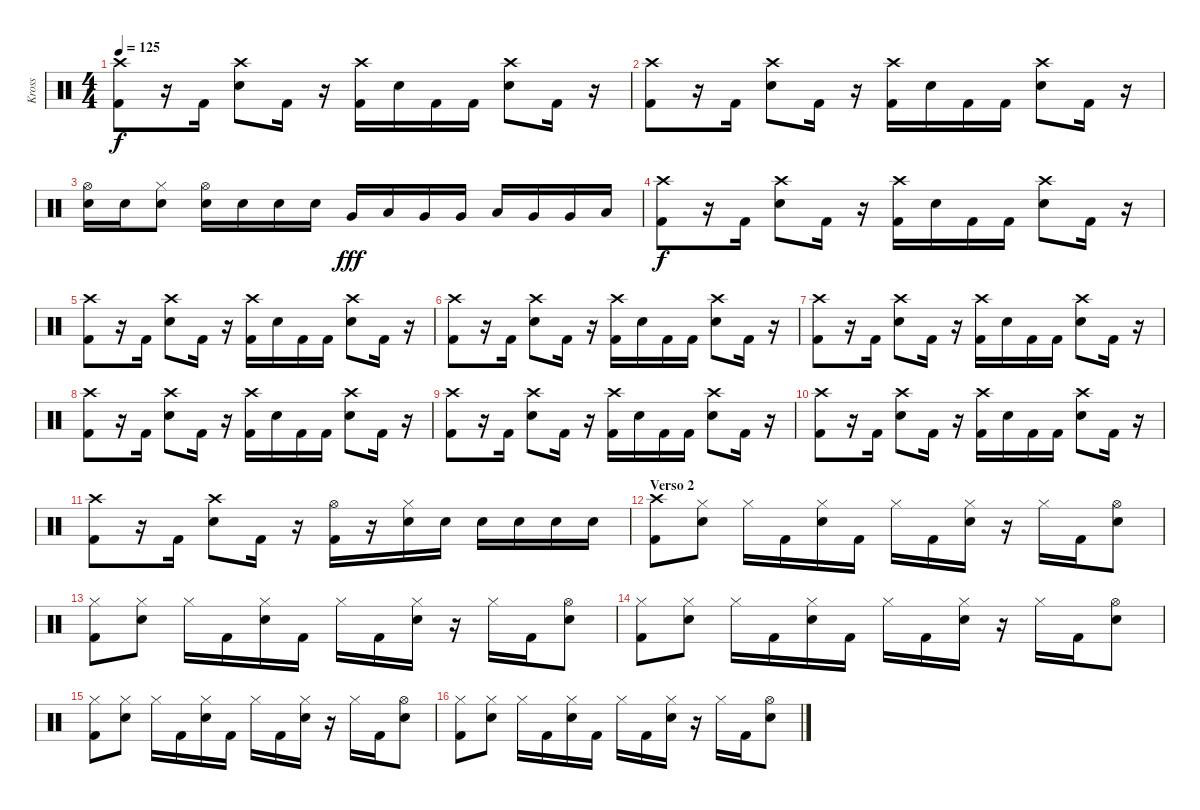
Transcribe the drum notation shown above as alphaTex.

\track ("Kross" "Kross") {instrument percussion}
\staff {score}
\articulation defaults
\ts (4 4)
\tempo 125
\clef neutral
\ks c
("Crash high (hit)" "Kick (hit) 2").8{dy f} r.16 "Kick (hit) 2".16 ("Crash high (hit)" "Electric Snare (hit)").8 "Kick (hit) 2".16 r.16 ("Crash high (hit)" "Kick (hit) 2").16 "Electric Snare (hit)".16 "Kick (hit) 2".16 "Kick (hit) 2".16 ("Crash high (hit)" "Electric Snare (hit)").8 "Kick (hit) 2".16 r.16 |
("Crash high (hit)" "Kick (hit) 2").8 r.16 "Kick (hit) 2".16 ("Crash high (hit)" "Electric Snare (hit)").8 "Kick (hit) 2".16 r.16 ("Crash high (hit)" "Kick (hit) 2").16 "Electric Snare (hit)".16 "Kick (hit) 2".16 "Kick (hit) 2".16 ("Crash high (hit)" "Electric Snare (hit)").8 "Kick (hit) 2".16 r.16 |
("Hi-Hat (open)" "Electric Snare (hit)").16 "Electric Snare (hit)".16 ("Hi-Hat (closed)" "Electric Snare (hit)").8 ("Hi-Hat (open)" "Electric Snare (hit)").16 "Electric Snare (hit)".16 "Electric Snare (hit)".16 "Electric Snare (hit)".16 "Very Low Tom (hit)".16{dy fff} "Low Tom (hit)".16 "Very Low Tom (hit)".16 "Very Low Tom (hit)".16 "Low Tom (hit)".16 "Very Low Tom (hit)".16 "Very Low Tom (hit)".16 "Low Tom (hit)".16 |
("Crash high (hit)" "Kick (hit) 2").8{dy f} r.16 "Kick (hit) 2".16 ("Crash high (hit)" "Electric Snare (hit)").8 "Kick (hit) 2".16 r.16 ("Crash high (hit)" "Kick (hit) 2").16 "Electric Snare (hit)".16 "Kick (hit) 2".16 "Kick (hit) 2".16 ("Crash high (hit)" "Electric Snare (hit)").8 "Kick (hit) 2".16 r.16 |
("Crash high (hit)" "Kick (hit) 2").8 r.16 "Kick (hit) 2".16 ("Crash high (hit)" "Electric Snare (hit)").8 "Kick (hit) 2".16 r.16 ("Crash high (hit)" "Kick (hit) 2").16 "Electric Snare (hit)".16 "Kick (hit) 2".16 "Kick (hit) 2".16 ("Crash high (hit)" "Electric Snare (hit)").8 "Kick (hit) 2".16 r.16 |
("Crash high (hit)" "Kick (hit) 2").8 r.16 "Kick (hit) 2".16 ("Crash high (hit)" "Electric Snare (hit)").8 "Kick (hit) 2".16 r.16 ("Crash high (hit)" "Kick (hit) 2").16 "Electric Snare (hit)".16 "Kick (hit) 2".16 "Kick (hit) 2".16 ("Crash high (hit)" "Electric Snare (hit)").8 "Kick (hit) 2".16 r.16 |
("Crash high (hit)" "Kick (hit) 2").8 r.16 "Kick (hit) 2".16 ("Crash high (hit)" "Electric Snare (hit)").8 "Kick (hit) 2".16 r.16 ("Crash high (hit)" "Kick (hit) 2").16 "Electric Snare (hit)".16 "Kick (hit) 2".16 "Kick (hit) 2".16 ("Crash high (hit)" "Electric Snare (hit)").8 "Kick (hit) 2".16 r.16 |
("Crash high (hit)" "Kick (hit) 2").8 r.16 "Kick (hit) 2".16 ("Crash high (hit)" "Electric Snare (hit)").8 "Kick (hit) 2".16 r.16 ("Crash high (hit)" "Kick (hit) 2").16 "Electric Snare (hit)".16 "Kick (hit) 2".16 "Kick (hit) 2".16 ("Crash high (hit)" "Electric Snare (hit)").8 "Kick (hit) 2".16 r.16 |
("Crash high (hit)" "Kick (hit) 2").8 r.16 "Kick (hit) 2".16 ("Crash high (hit)" "Electric Snare (hit)").8 "Kick (hit) 2".16 r.16 ("Crash high (hit)" "Kick (hit) 2").16 "Electric Snare (hit)".16 "Kick (hit) 2".16 "Kick (hit) 2".16 ("Crash high (hit)" "Electric Snare (hit)").8 "Kick (hit) 2".16 r.16 |
("Crash high (hit)" "Kick (hit) 2").8 r.16 "Kick (hit) 2".16 ("Crash high (hit)" "Electric Snare (hit)").8 "Kick (hit) 2".16 r.16 ("Crash high (hit)" "Kick (hit) 2").16 "Electric Snare (hit)".16 "Kick (hit) 2".16 "Kick (hit) 2".16 ("Crash high (hit)" "Electric Snare (hit)").8 "Kick (hit) 2".16 r.16 |
("Crash high (hit)" "Kick (hit) 2").8 r.16 "Kick (hit) 2".16 ("Crash high (hit)" "Electric Snare (hit)").8 "Kick (hit) 2".16 r.16 ("Hi-Hat (open)" "Kick (hit) 2").16 r.16 ("Hi-Hat (closed)" "Electric Snare (hit)").16 "Electric Snare (hit)".16 "Electric Snare (hit)".16 "Electric Snare (hit)".16 "Electric Snare (hit)".16 "Electric Snare (hit)".16 |
\section ("" "Verso 2")
("Crash high (hit)" "Kick (hit) 2").8 ("Hi-Hat (closed)" "Electric Snare (hit)").8 "Hi-Hat (closed)".16 "Kick (hit) 2".16 ("Hi-Hat (closed)" "Electric Snare (hit)").16 "Kick (hit) 2".16 "Hi-Hat (closed)".16 "Kick (hit) 2".16 ("Hi-Hat (closed)" "Electric Snare (hit)").16 r.16 "Hi-Hat (closed)".16 "Kick (hit) 2".16 ("Hi-Hat (open)" "Electric Snare (hit)").8 |
("Hi-Hat (closed)" "Kick (hit) 2").8 ("Hi-Hat (closed)" "Electric Snare (hit)").8 "Hi-Hat (closed)".16 "Kick (hit) 2".16 ("Hi-Hat (closed)" "Electric Snare (hit)").16 "Kick (hit) 2".16 "Hi-Hat (closed)".16 "Kick (hit) 2".16 ("Hi-Hat (closed)" "Electric Snare (hit)").16 r.16 "Hi-Hat (closed)".16 "Kick (hit) 2".16 ("Hi-Hat (open)" "Electric Snare (hit)").8 |
("Hi-Hat (closed)" "Kick (hit) 2").8 ("Hi-Hat (closed)" "Electric Snare (hit)").8 "Hi-Hat (closed)".16 "Kick (hit) 2".16 ("Hi-Hat (closed)" "Electric Snare (hit)").16 "Kick (hit) 2".16 "Hi-Hat (closed)".16 "Kick (hit) 2".16 ("Hi-Hat (closed)" "Electric Snare (hit)").16 r.16 "Hi-Hat (closed)".16 "Kick (hit) 2".16 ("Hi-Hat (open)" "Electric Snare (hit)").8 |
("Hi-Hat (closed)" "Kick (hit) 2").8 ("Hi-Hat (closed)" "Electric Snare (hit)").8 "Hi-Hat (closed)".16 "Kick (hit) 2".16 ("Hi-Hat (closed)" "Electric Snare (hit)").16 "Kick (hit) 2".16 "Hi-Hat (closed)".16 "Kick (hit) 2".16 ("Hi-Hat (closed)" "Electric Snare (hit)").16 r.16 "Hi-Hat (closed)".16 "Kick (hit) 2".16 ("Hi-Hat (open)" "Electric Snare (hit)").8 |
("Hi-Hat (closed)" "Kick (hit) 2").8 ("Hi-Hat (closed)" "Electric Snare (hit)").8 "Hi-Hat (closed)".16 "Kick (hit) 2".16 ("Hi-Hat (closed)" "Electric Snare (hit)").16 "Kick (hit) 2".16 "Hi-Hat (closed)".16 "Kick (hit) 2".16 ("Hi-Hat (closed)" "Electric Snare (hit)").16 r.16 "Hi-Hat (closed)".16 "Kick (hit) 2".16 ("Hi-Hat (open)" "Electric Snare (hit)").8
